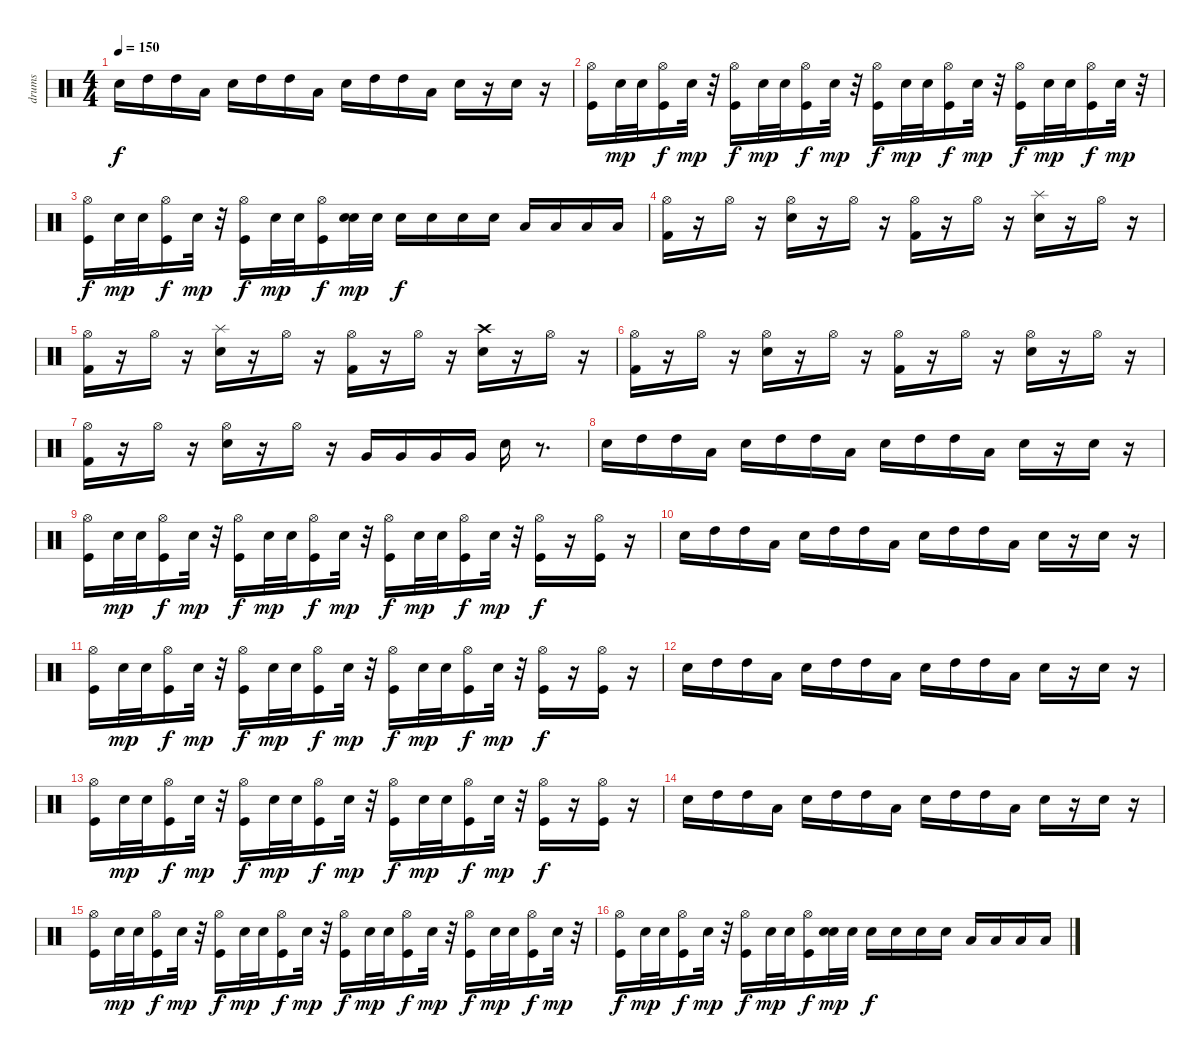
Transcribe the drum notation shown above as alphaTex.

\track ("drums" "drums") {instrument percussion}
\staff {score}
\articulation defaults
\ts (4 4)
\tempo 150
\clef neutral
\ks c "Snare (hit) 2".16{dy f} "High Tom (hit)".16 "High Tom (hit)".16 "Low Tom (hit)".16 "Snare (hit) 2".16 "High Tom (hit)".16 "High Tom (hit)".16 "Low Tom (hit)".16 "Snare (hit) 2".16 "High Tom (hit)".16 "High Tom (hit)".16 "Low Tom (hit)".16 "Snare (hit) 2".16
r.16 "Snare (hit) 2".16 r.16 |
("Kick (hit)" "Hi-Hat (open)").16 "Snare (hit) 2".32{dy mp} "Snare (hit) 2".32 ("Kick (hit)" "Hi-Hat (open)").16{dy f} "Snare (hit) 2".32{dy mp} r.32 ("Kick (hit)" "Hi-Hat (open)").16{dy f} "Snare (hit) 2".32{dy mp} "Snare (hit) 2".32 ("Kick (hit)" "Hi-Hat (open)").16{dy f} "Snare (hit) 2".32{dy mp} r.32 ("Kick (hit)" "Hi-Hat (open)").16{dy f} "Snare (hit) 2".32{dy mp} "Snare (hit) 2".32 ("Kick (hit)" "Hi-Hat (open)").16{dy f} "Snare (hit) 2".32{dy mp} r.32 ("Kick (hit)" "Hi-Hat (open)").16{dy f} "Snare (hit) 2".32{dy mp} "Snare (hit) 2".32 ("Kick (hit)" "Hi-Hat (open)").16{dy f} "Snare (hit) 2".32{dy mp} r.32 |
("Kick (hit)" "Hi-Hat (open)").16{dy f} "Snare (hit) 2".32{dy mp} "Snare (hit) 2".32 ("Kick (hit)" "Hi-Hat (open)").16{dy f} "Snare (hit) 2".32{dy mp} r.32 ("Kick (hit)" "Hi-Hat (open)").16{dy f} "Snare (hit) 2".32{dy mp} "Snare (hit) 2".32 ("Kick (hit)" "Hi-Hat (open)").16{dy f} ("Snare (hit) 2" "Snare (hit) 2").32{dy mp} "Snare (hit) 2".32 "Snare (hit) 2".16{dy f} "Snare (hit) 2".16 "Snare (hit) 2".16 "Snare (hit) 2".16 "Low Tom (hit)".16 "Low Tom (hit)".16 "Low Tom (hit)".16 "Low Tom (hit)".16 |
("Kick (hit) 2" "Hi-Hat (open)").16 r.16 "Hi-Hat (open)".16 r.16 ("Electric Snare (hit)" "Hi-Hat (open)").16 r.16 "Hi-Hat (open)".16 r.16 ("Kick (hit) 2" "Hi-Hat (open)").16 r.16 "Hi-Hat (open)".16 r.16 ("Electric Snare (hit)" "Splash (hit)").16 r.16 "Hi-Hat (open)".16 r.16 |
("Kick (hit) 2" "Hi-Hat (open)").16 r.16 "Hi-Hat (open)".16 r.16 ("Electric Snare (hit)" "Splash (hit)").16 r.16 "Hi-Hat (open)".16 r.16 ("Kick (hit) 2" "Hi-Hat (open)").16 r.16 "Hi-Hat (open)".16 r.16 ("Electric Snare (hit)" "Crash high (hit)").16 r.16 "Hi-Hat (open)".16 r.16 |
("Kick (hit) 2" "Hi-Hat (open)").16 r.16 "Hi-Hat (open)".16 r.16 ("Electric Snare (hit)" "Hi-Hat (open)").16 r.16 "Hi-Hat (open)".16 r.16 ("Kick (hit) 2" "Hi-Hat (open)").16 r.16 "Hi-Hat (open)".16 r.16 ("Electric Snare (hit)" "Hi-Hat (open)").16 r.16 "Hi-Hat (open)".16 r.16 |
("Kick (hit) 2" "Hi-Hat (open)").16 r.16 "Hi-Hat (open)".16 r.16 ("Electric Snare (hit)" "Hi-Hat (open)").16 r.16 "Hi-Hat (open)".16 r.16 "Very Low Tom (hit)".16 "Very Low Tom (hit)".16 "Very Low Tom (hit)".16 "Very Low Tom (hit)".16 "Electric Snare (hit)".16 r.8{d} |
"Snare (hit) 2".16 "High Tom (hit)".16 "High Tom (hit)".16 "Low Tom (hit)".16 "Snare (hit) 2".16 "High Tom (hit)".16 "High Tom (hit)".16 "Low Tom (hit)".16 "Snare (hit) 2".16 "High Tom (hit)".16 "High Tom (hit)".16 "Low Tom (hit)".16 "Snare (hit) 2".16 r.16 "Snare (hit) 2".16 r.16 |
("Kick (hit)" "Hi-Hat (open)").16 "Snare (hit) 2".32{dy mp} "Snare (hit) 2".32 ("Kick (hit)" "Hi-Hat (open)").16{dy f} "Snare (hit) 2".32{dy mp} r.32 ("Kick (hit)" "Hi-Hat (open)").16{dy f} "Snare (hit) 2".32{dy mp} "Snare (hit) 2".32 ("Kick (hit)" "Hi-Hat (open)").16{dy f} "Snare (hit) 2".32{dy mp} r.32 ("Kick (hit)" "Hi-Hat (open)").16{dy f} "Snare (hit) 2".32{dy mp} "Snare (hit) 2".32 ("Kick (hit)" "Hi-Hat (open)").16{dy f} "Snare (hit) 2".32{dy mp} r.32 ("Kick (hit)" "Hi-Hat (open)").16{dy f} r.16 ("Kick (hit)" "Hi-Hat (open)").16 r.16 |
"Snare (hit) 2".16 "High Tom (hit)".16 "High Tom (hit)".16 "Low Tom (hit)".16 "Snare (hit) 2".16 "High Tom (hit)".16 "High Tom (hit)".16 "Low Tom (hit)".16 "Snare (hit) 2".16 "High Tom (hit)".16 "High Tom (hit)".16 "Low Tom (hit)".16 "Snare (hit) 2".16 r.16 "Snare (hit) 2".16 r.16 |
("Kick (hit)" "Hi-Hat (open)").16 "Snare (hit) 2".32{dy mp} "Snare (hit) 2".32 ("Kick (hit)" "Hi-Hat (open)").16{dy f} "Snare (hit) 2".32{dy mp} r.32 ("Kick (hit)" "Hi-Hat (open)").16{dy f} "Snare (hit) 2".32{dy mp} "Snare (hit) 2".32 ("Kick (hit)" "Hi-Hat (open)").16{dy f} "Snare (hit) 2".32{dy mp} r.32 ("Kick (hit)" "Hi-Hat (open)").16{dy f} "Snare (hit) 2".32{dy mp} "Snare (hit) 2".32 ("Kick (hit)" "Hi-Hat (open)").16{dy f} "Snare (hit) 2".32{dy mp} r.32 ("Kick (hit)" "Hi-Hat (open)").16{dy f} r.16 ("Kick (hit)" "Hi-Hat (open)").16 r.16 |
"Snare (hit) 2".16 "High Tom (hit)".16 "High Tom (hit)".16 "Low Tom (hit)".16 "Snare (hit) 2".16 "High Tom (hit)".16 "High Tom (hit)".16 "Low Tom (hit)".16 "Snare (hit) 2".16 "High Tom (hit)".16 "High Tom (hit)".16 "Low Tom (hit)".16 "Snare (hit) 2".16 r.16 "Snare (hit) 2".16 r.16 |
("Kick (hit)" "Hi-Hat (open)").16 "Snare (hit) 2".32{dy mp} "Snare (hit) 2".32 ("Kick (hit)" "Hi-Hat (open)").16{dy f} "Snare (hit) 2".32{dy mp} r.32 ("Kick (hit)" "Hi-Hat (open)").16{dy f} "Snare (hit) 2".32{dy mp} "Snare (hit) 2".32 ("Kick (hit)" "Hi-Hat (open)").16{dy f} "Snare (hit) 2".32{dy mp} r.32 ("Kick (hit)" "Hi-Hat (open)").16{dy f} "Snare (hit) 2".32{dy mp} "Snare (hit) 2".32 ("Kick (hit)" "Hi-Hat (open)").16{dy f} "Snare (hit) 2".32{dy mp} r.32 ("Kick (hit)" "Hi-Hat (open)").16{dy f} r.16 ("Kick (hit)" "Hi-Hat (open)").16 r.16 |
"Snare (hit) 2".16 "High Tom (hit)".16 "High Tom (hit)".16 "Low Tom (hit)".16 "Snare (hit) 2".16 "High Tom (hit)".16 "High Tom (hit)".16 "Low Tom (hit)".16 "Snare (hit) 2".16 "High Tom (hit)".16 "High Tom (hit)".16 "Low Tom (hit)".16 "Snare (hit) 2".16 r.16 "Snare (hit) 2".16 r.16 |
("Kick (hit)" "Hi-Hat (open)").16 "Snare (hit) 2".32{dy mp} "Snare (hit) 2".32 ("Kick (hit)" "Hi-Hat (open)").16{dy f} "Snare (hit) 2".32{dy mp} r.32 ("Kick (hit)" "Hi-Hat (open)").16{dy f} "Snare (hit) 2".32{dy mp} "Snare (hit) 2".32 ("Kick (hit)" "Hi-Hat (open)").16{dy f} "Snare (hit) 2".32{dy mp} r.32 ("Kick (hit)" "Hi-Hat (open)").16{dy f} "Snare (hit) 2".32{dy mp} "Snare (hit) 2".32 ("Kick (hit)" "Hi-Hat (open)").16{dy f} "Snare (hit) 2".32{dy mp} r.32 ("Kick (hit)" "Hi-Hat (open)").16{dy f} "Snare (hit) 2".32{dy mp} "Snare (hit) 2".32 ("Kick (hit)" "Hi-Hat (open)").16{dy f} "Snare (hit) 2".32{dy mp} r.32 |
("Kick (hit)" "Hi-Hat (open)").16{dy f} "Snare (hit) 2".32{dy mp} "Snare (hit) 2".32 ("Kick (hit)" "Hi-Hat (open)").16{dy f} "Snare (hit) 2".32{dy mp} r.32 ("Kick (hit)" "Hi-Hat (open)").16{dy f} "Snare (hit) 2".32{dy mp} "Snare (hit) 2".32 ("Kick (hit)" "Hi-Hat (open)").16{dy f} ("Snare (hit) 2" "Snare (hit) 2").32{dy mp} "Snare (hit) 2".32 "Snare (hit) 2".16{dy f} "Snare (hit) 2".16 "Snare (hit) 2".16 "Snare (hit) 2".16 "Low Tom (hit)".16 "Low Tom (hit)".16 "Low Tom (hit)".16 "Low Tom (hit)".16
